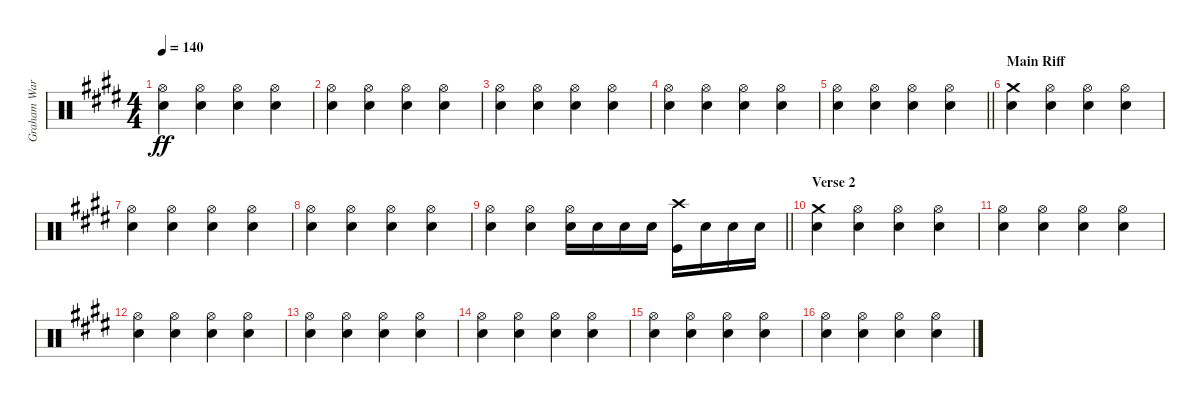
\track ("Graham Ward (Drums)" "Graham War") {instrument percussion}
\staff {score}
\articulation defaults
\ts (4 4)
\tempo 140
\clef neutral
\ks e
("Snare (hit) 2" "Hi-Hat (open)").4{dy ff} ("Snare (hit) 2" "Hi-Hat (open)").4 ("Snare (hit) 2" "Hi-Hat (open)").4 ("Snare (hit) 2" "Hi-Hat (open)").4 |
("Snare (hit) 2" "Hi-Hat (open)").4 ("Snare (hit) 2" "Hi-Hat (open)").4 ("Snare (hit) 2" "Hi-Hat (open)").4 ("Snare (hit) 2" "Hi-Hat (open)").4 |
("Snare (hit) 2" "Hi-Hat (open)").4 ("Snare (hit) 2" "Hi-Hat (open)").4 ("Snare (hit) 2" "Hi-Hat (open)").4 ("Snare (hit) 2" "Hi-Hat (open)").4 |
("Snare (hit) 2" "Hi-Hat (open)").4 ("Snare (hit) 2" "Hi-Hat (open)").4 ("Snare (hit) 2" "Hi-Hat (open)").4 ("Snare (hit) 2" "Hi-Hat (open)").4 |
\barLineRight lightlight
("Snare (hit) 2" "Hi-Hat (open)").4 ("Snare (hit) 2" "Hi-Hat (open)").4 ("Snare (hit) 2" "Hi-Hat (open)").4 ("Snare (hit) 2" "Hi-Hat (open)").4 |
\section ("" "Main Riff")
("Crash medium (hit)" "Snare (hit) 2").4 ("Snare (hit) 2" "Hi-Hat (open)").4 ("Snare (hit) 2" "Hi-Hat (open)").4 ("Snare (hit) 2" "Hi-Hat (open)").4 |
("Snare (hit) 2" "Hi-Hat (open)").4 ("Snare (hit) 2" "Hi-Hat (open)").4 ("Snare (hit) 2" "Hi-Hat (open)").4 ("Snare (hit) 2" "Hi-Hat (open)").4 |
("Snare (hit) 2" "Hi-Hat (open)").4 ("Snare (hit) 2" "Hi-Hat (open)").4 ("Snare (hit) 2" "Hi-Hat (open)").4 ("Snare (hit) 2" "Hi-Hat (open)").4 |
\barLineRight lightlight
("Snare (hit) 2" "Hi-Hat (open)").4 ("Snare (hit) 2" "Hi-Hat (open)").4 ("Snare (hit) 2" "Hi-Hat (open)").16 "Snare (hit) 2".16 "Snare (hit) 2".16 "Snare (hit) 2".16 ("Crash high (hit)" "Kick (hit)").16 "Snare (hit) 2".16 "Snare (hit) 2".16 "Snare (hit) 2".16 |
\section ("" "Verse 2")
("Crash medium (hit)" "Snare (hit) 2").4 ("Snare (hit) 2" "Hi-Hat (open)").4 ("Snare (hit) 2" "Hi-Hat (open)").4 ("Snare (hit) 2" "Hi-Hat (open)").4 |
("Snare (hit) 2" "Hi-Hat (open)").4 ("Snare (hit) 2" "Hi-Hat (open)").4 ("Snare (hit) 2" "Hi-Hat (open)").4 ("Snare (hit) 2" "Hi-Hat (open)").4 |
("Snare (hit) 2" "Hi-Hat (open)").4 ("Snare (hit) 2" "Hi-Hat (open)").4 ("Snare (hit) 2" "Hi-Hat (open)").4 ("Snare (hit) 2" "Hi-Hat (open)").4 |
("Snare (hit) 2" "Hi-Hat (open)").4 ("Snare (hit) 2" "Hi-Hat (open)").4 ("Snare (hit) 2" "Hi-Hat (open)").4 ("Snare (hit) 2" "Hi-Hat (open)").4 |
("Snare (hit) 2" "Hi-Hat (open)").4 ("Snare (hit) 2" "Hi-Hat (open)").4 ("Snare (hit) 2" "Hi-Hat (open)").4 ("Snare (hit) 2" "Hi-Hat (open)").4 |
("Snare (hit) 2" "Hi-Hat (open)").4 ("Snare (hit) 2" "Hi-Hat (open)").4 ("Snare (hit) 2" "Hi-Hat (open)").4 ("Snare (hit) 2" "Hi-Hat (open)").4 |
("Snare (hit) 2" "Hi-Hat (open)").4 ("Snare (hit) 2" "Hi-Hat (open)").4 ("Snare (hit) 2" "Hi-Hat (open)").4 ("Snare (hit) 2" "Hi-Hat (open)").4
